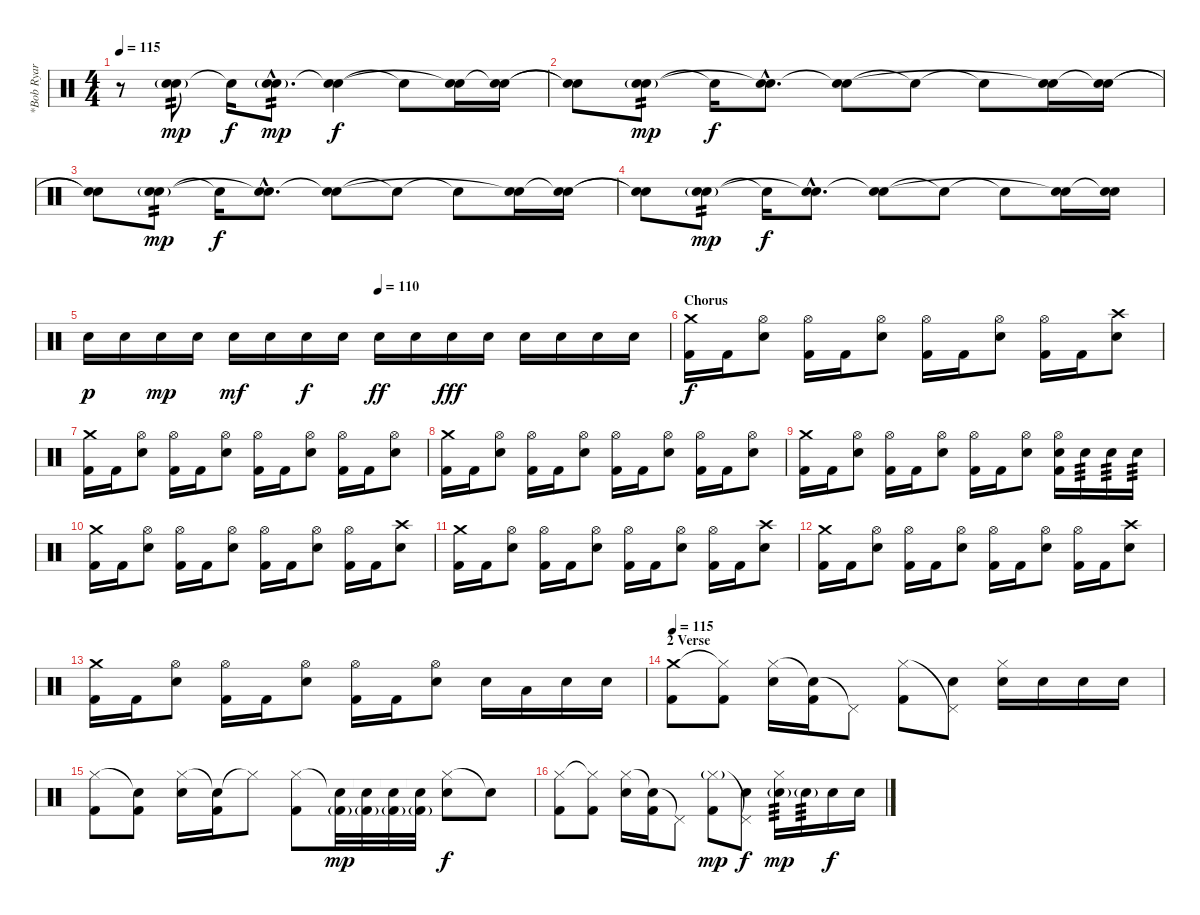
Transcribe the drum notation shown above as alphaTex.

\track ("*Bob Ryar (Drums)" "*Bob Ryar ") {instrument percussion}
\staff {score}
\articulation defaults
\ts (4 4)
\tempo 115
\clef neutral
\ks c
r.8{dy f} ("Electric Snare (hit)" "Electric Snare (hit)"{g}).8{tp 2 dy mp} "Snare (hit)"{t}.16{dy f} ("Electric Snare (hit)"{hac} "Electric Snare (hit)"{g hac}).8{d tp 2 dy mp} ("Electric Snare (hit)" "Snare (hit)"{t}).4{dy f} "Snare (hit)"{t}.8 ("Electric Snare (hit)" "Snare (hit)"{t}).16 ("Electric Snare (hit)" "Electric Snare (hit)"{t}).16 |
("Electric Snare (hit)"{t} "Snare (hit)"{t}).8 ("Electric Snare (hit)" "Electric Snare (hit)"{g}).8{tp 2 dy mp} "Snare (hit)"{t}.16{dy f} ("Electric Snare (hit)"{hac} "Snare (hit)"{hac t}).8{d} ("Electric Snare (hit)" "Snare (hit)"{t}).8 "Snare (hit)"{t}.8 "Snare (hit)"{t}.8 ("Electric Snare (hit)" "Snare (hit)"{t}).16 ("Electric Snare (hit)" "Snare (hit)"{t}).16 |
("Electric Snare (hit)"{t} "Snare (hit)"{t}).8 ("Electric Snare (hit)" "Electric Snare (hit)"{g}).8{tp 2 dy mp} "Snare (hit)"{t}.16{dy f} ("Electric Snare (hit)"{hac} "Snare (hit)"{hac t}).8{d} ("Electric Snare (hit)" "Snare (hit)"{t}).8 "Snare (hit)"{t}.8 "Snare (hit)"{t}.8 ("Electric Snare (hit)" "Snare (hit)"{t}).16 ("Electric Snare (hit)" "Snare (hit)"{t}).16 |
("Electric Snare (hit)"{t} "Snare (hit)"{t}).8 ("Electric Snare (hit)" "Electric Snare (hit)"{g}).8{tp 2 dy mp} "Snare (hit)"{t}.16{dy f} ("Electric Snare (hit)"{hac} "Snare (hit)"{hac t}).8{d} ("Electric Snare (hit)" "Snare (hit)"{t}).8 "Snare (hit)"{t}.8 "Snare (hit)"{t}.8 ("Electric Snare (hit)" "Snare (hit)"{t}).16 ("Electric Snare (hit)" "Snare (hit)"{t}).16 |
\tempo (110 0.5)
"Electric Snare (hit)".16{dy p} "Electric Snare (hit)".16 "Electric Snare (hit)".16{dy mp} "Electric Snare (hit)".16 "Electric Snare (hit)".16{dy mf} "Electric Snare (hit)".16 "Electric Snare (hit)".16{dy f} "Electric Snare (hit)".16 "Electric Snare (hit)".16{dy ff} "Electric Snare (hit)".16 "Electric Snare (hit)".16{dy fff} "Electric Snare (hit)".16 "Electric Snare (hit)".16 "Electric Snare (hit)".16 "Electric Snare (hit)".16 "Electric Snare (hit)".16 |
\section ("" "Chorus")
("Crash medium (hit)" "Kick (hit) 2").16{dy f} "Kick (hit) 2".16 ("Hi-Hat (open)" "Electric Snare (hit)").8 ("Hi-Hat (open)" "Kick (hit) 2").16 "Kick (hit) 2".16 ("Hi-Hat (open)" "Electric Snare (hit)").8 ("Hi-Hat (open)" "Kick (hit) 2").16 "Kick (hit) 2".16 ("Hi-Hat (open)" "Electric Snare (hit)").8 ("Hi-Hat (open)" "Kick (hit) 2").16 "Kick (hit) 2".16 ("Crash high (hit)" "Electric Snare (hit)").8 |
("Crash medium (hit)" "Kick (hit) 2").16 "Kick (hit) 2".16 ("Hi-Hat (open)" "Electric Snare (hit)").8 ("Hi-Hat (open)" "Kick (hit) 2").16 "Kick (hit) 2".16 ("Hi-Hat (open)" "Electric Snare (hit)").8 ("Hi-Hat (open)" "Kick (hit) 2").16 "Kick (hit) 2".16 ("Hi-Hat (open)" "Electric Snare (hit)").8 ("Hi-Hat (open)" "Kick (hit) 2").16 "Kick (hit) 2".16 ("Hi-Hat (open)" "Electric Snare (hit)").8 |
("Crash medium (hit)" "Kick (hit) 2").16 "Kick (hit) 2".16 ("Hi-Hat (open)" "Electric Snare (hit)").8 ("Hi-Hat (open)" "Kick (hit) 2").16 "Kick (hit) 2".16 ("Hi-Hat (open)" "Electric Snare (hit)").8 ("Hi-Hat (open)" "Kick (hit) 2").16 "Kick (hit) 2".16 ("Hi-Hat (open)" "Electric Snare (hit)").8 ("Hi-Hat (open)" "Kick (hit) 2").16 "Kick (hit) 2".16 ("Hi-Hat (open)" "Electric Snare (hit)").8 |
("Crash medium (hit)" "Kick (hit) 2").16 "Kick (hit) 2".16 ("Hi-Hat (open)" "Electric Snare (hit)").8 ("Hi-Hat (open)" "Kick (hit) 2").16 "Kick (hit) 2".16 ("Hi-Hat (open)" "Electric Snare (hit)").8 ("Hi-Hat (open)" "Kick (hit) 2").16 "Kick (hit) 2".16 ("Hi-Hat (open)" "Electric Snare (hit)").8 ("Hi-Hat (open)" "Electric Snare (hit)" "Kick (hit) 2").16 "Electric Snare (hit)".16{tp 3} "Electric Snare (hit)".16{tp 3} "Electric Snare (hit)".16{tp 3} |
("Crash medium (hit)" "Kick (hit) 2").16 "Kick (hit) 2".16 ("Hi-Hat (open)" "Electric Snare (hit)").8 ("Hi-Hat (open)" "Kick (hit) 2").16 "Kick (hit) 2".16 ("Hi-Hat (open)" "Electric Snare (hit)").8 ("Hi-Hat (open)" "Kick (hit) 2").16 "Kick (hit) 2".16 ("Hi-Hat (open)" "Electric Snare (hit)").8 ("Hi-Hat (open)" "Kick (hit) 2").16 "Kick (hit) 2".16 ("Crash high (hit)" "Electric Snare (hit)").8 |
("Crash medium (hit)" "Kick (hit) 2").16 "Kick (hit) 2".16 ("Hi-Hat (open)" "Electric Snare (hit)").8 ("Hi-Hat (open)" "Kick (hit) 2").16 "Kick (hit) 2".16 ("Hi-Hat (open)" "Electric Snare (hit)").8 ("Hi-Hat (open)" "Kick (hit) 2").16 "Kick (hit) 2".16 ("Hi-Hat (open)" "Electric Snare (hit)").8 ("Hi-Hat (open)" "Kick (hit) 2").16 "Kick (hit) 2".16 ("Crash high (hit)" "Electric Snare (hit)").8 |
("Crash medium (hit)" "Kick (hit) 2").16 "Kick (hit) 2".16 ("Hi-Hat (open)" "Electric Snare (hit)").8 ("Hi-Hat (open)" "Kick (hit) 2").16 "Kick (hit) 2".16 ("Hi-Hat (open)" "Electric Snare (hit)").8 ("Hi-Hat (open)" "Kick (hit) 2").16 "Kick (hit) 2".16 ("Hi-Hat (open)" "Electric Snare (hit)").8 ("Hi-Hat (open)" "Kick (hit) 2").16 "Kick (hit) 2".16 ("Crash high (hit)" "Electric Snare (hit)").8 |
("Crash medium (hit)" "Kick (hit) 2").16 "Kick (hit) 2".16 ("Hi-Hat (open)" "Electric Snare (hit)").8 ("Hi-Hat (open)" "Kick (hit) 2").16 "Kick (hit) 2".16 ("Hi-Hat (open)" "Electric Snare (hit)").8 ("Hi-Hat (open)" "Kick (hit) 2").16 "Kick (hit) 2".16 ("Hi-Hat (open)" "Electric Snare (hit)").8 "Electric Snare (hit)".16 "Low Tom (hit)".16 "Electric Snare (hit)".16 "Electric Snare (hit)".16 |
\section ("" "2 Verse")
\tempo 115
("Crash medium (hit)" "Kick (hit) 2").8 ("Hi-Hat (closed)"{t} "Kick (hit) 2").8 ("Hi-Hat (closed)" "Electric Snare (hit)").16 ("Snare (hit)"{t} "Kick (hit) 2").16 "Pedal Hi-Hat (hit)"{t}.8 ("Hi-Hat (closed)" "Kick (hit) 2").8 ("Pedal Hi-Hat (hit)"{t} "Electric Snare (hit)").8 ("Hi-Hat (closed)" "Electric Snare (hit)").16 "Electric Snare (hit)".16 "Electric Snare (hit)".16 "Electric Snare (hit)".16 |
("Hi-Hat (closed)" "Kick (hit) 2").8 ("Snare (hit)"{t} "Kick (hit) 2").8 ("Hi-Hat (closed)" "Electric Snare (hit)").16 ("Snare (hit)"{t} "Kick (hit) 2").16 "Hi-Hat (closed)"{t}.8 ("Hi-Hat (closed)" "Kick (hit) 2").8 ("Snare (hit)"{t} "Kick (hit) 2"{g}).32{dy mp} ("Snare (hit)"{t} "Kick (hit) 2"{g}).32 ("Snare (hit)"{t} "Kick (hit) 2"{g}).32 ("Snare (hit)"{t} "Kick (hit) 2"{g}).32 ("Hi-Hat (closed)" "Electric Snare (hit)").8{dy f} "Snare (hit)"{t}.8 |
("Hi-Hat (closed)" "Kick (hit) 2").8 ("Hi-Hat (closed)"{t} "Kick (hit) 2").8 ("Hi-Hat (closed)" "Electric Snare (hit)").16 ("Snare (hit)"{t} "Kick (hit) 2").16 "Pedal Hi-Hat (hit)"{t}.8 ("Hi-Hat (closed)"{g} "Kick (hit) 2").8{dy mp} ("Pedal Hi-Hat (hit)"{t} "Electric Snare (hit)").8{dy f} ("Hi-Hat (closed)" "Electric Snare (hit)"{g}).16{tp 3 dy mp} "Electric Snare (hit)"{g}.16{tp 3} "Electric Snare (hit)".16{dy f} "Electric Snare (hit)".16
